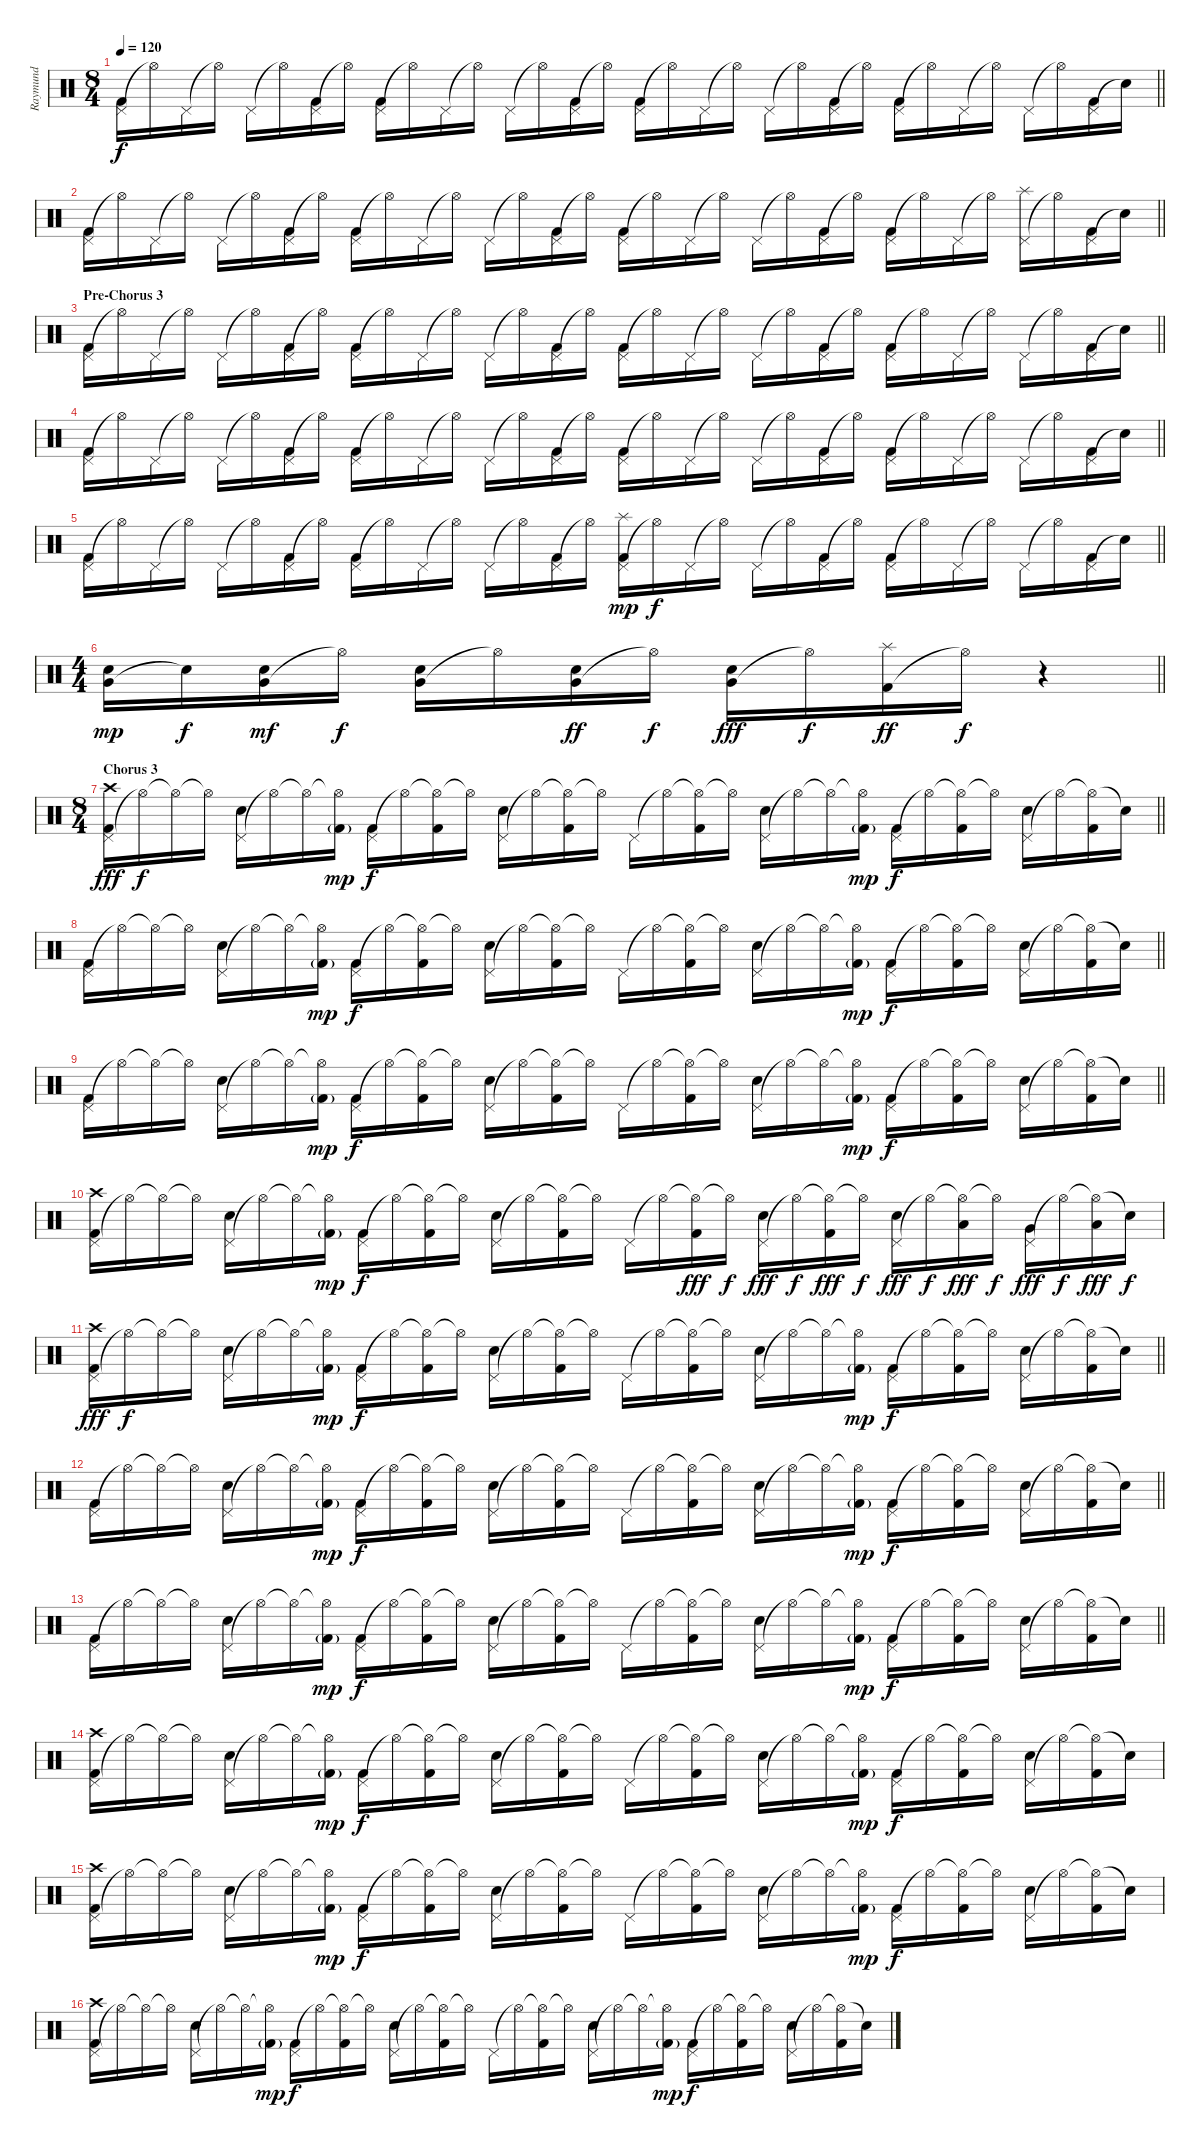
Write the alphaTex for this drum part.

\track ("Raymund" "Raymund") {instrument percussion}
\staff {score}
\articulation defaults
\ts (8 4)
\tempo 120
\clef neutral
\barLineRight lightlight
\ks c
("Pedal Hi-Hat (hit)" "Kick (hit) 2").16{dy f} "Hi-Hat (open)"{t}.16 "Pedal Hi-Hat (hit)".16 "Hi-Hat (open)"{t}.16 "Pedal Hi-Hat (hit)".16 "Hi-Hat (open)"{t}.16 ("Pedal Hi-Hat (hit)" "Kick (hit) 2").16 "Hi-Hat (open)"{t}.16 ("Pedal Hi-Hat (hit)" "Kick (hit) 2").16 "Hi-Hat (open)"{t}.16 "Pedal Hi-Hat (hit)".16 "Hi-Hat (open)"{t}.16 "Pedal Hi-Hat (hit)".16 "Hi-Hat (open)"{t}.16 ("Pedal Hi-Hat (hit)" "Kick (hit) 2").16 "Hi-Hat (open)"{t}.16 ("Pedal Hi-Hat (hit)" "Kick (hit) 2").16 "Hi-Hat (open)"{t}.16 "Pedal Hi-Hat (hit)".16 "Hi-Hat (open)"{t}.16 "Pedal Hi-Hat (hit)".16 "Hi-Hat (open)"{t}.16 ("Pedal Hi-Hat (hit)" "Kick (hit) 2").16 "Hi-Hat (open)"{t}.16 ("Pedal Hi-Hat (hit)" "Kick (hit) 2").16 "Hi-Hat (open)"{t}.16 "Pedal Hi-Hat (hit)".16 "Hi-Hat (open)"{t}.16 "Pedal Hi-Hat (hit)".16 "Hi-Hat (open)"{t}.16 ("Pedal Hi-Hat (hit)" "Kick (hit) 2").16 "Snare (hit)"{t}.16 |
\barLineRight lightlight
("Pedal Hi-Hat (hit)" "Kick (hit) 2").16 "Hi-Hat (open)"{t}.16 "Pedal Hi-Hat (hit)".16 "Hi-Hat (open)"{t}.16 "Pedal Hi-Hat (hit)".16 "Hi-Hat (open)"{t}.16 ("Pedal Hi-Hat (hit)" "Kick (hit) 2").16 "Hi-Hat (open)"{t}.16 ("Pedal Hi-Hat (hit)" "Kick (hit) 2").16 "Hi-Hat (open)"{t}.16 "Pedal Hi-Hat (hit)".16 "Hi-Hat (open)"{t}.16 "Pedal Hi-Hat (hit)".16 "Hi-Hat (open)"{t}.16 ("Pedal Hi-Hat (hit)" "Kick (hit) 2").16 "Hi-Hat (open)"{t}.16 ("Pedal Hi-Hat (hit)" "Kick (hit) 2").16 "Hi-Hat (open)"{t}.16 "Pedal Hi-Hat (hit)".16 "Hi-Hat (open)"{t}.16 "Pedal Hi-Hat (hit)".16 "Hi-Hat (open)"{t}.16 ("Pedal Hi-Hat (hit)" "Kick (hit) 2").16 "Hi-Hat (open)"{t}.16 ("Pedal Hi-Hat (hit)" "Kick (hit) 2").16 "Hi-Hat (open)"{t}.16 "Pedal Hi-Hat (hit)".16 "Hi-Hat (open)"{t}.16 ("Pedal Hi-Hat (hit)" "Splash (hit)").16 "Hi-Hat (open)"{t}.16 ("Pedal Hi-Hat (hit)" "Kick (hit) 2").16 "Snare (hit)"{t}.16 |
\section ("" "Pre-Chorus 3")
\barLineRight lightlight
("Pedal Hi-Hat (hit)" "Kick (hit) 2").16 "Hi-Hat (open)"{t}.16 "Pedal Hi-Hat (hit)".16 "Hi-Hat (open)"{t}.16 "Pedal Hi-Hat (hit)".16 "Hi-Hat (open)"{t}.16 ("Pedal Hi-Hat (hit)" "Kick (hit) 2").16 "Hi-Hat (open)"{t}.16 ("Pedal Hi-Hat (hit)" "Kick (hit) 2").16 "Hi-Hat (open)"{t}.16 "Pedal Hi-Hat (hit)".16 "Hi-Hat (open)"{t}.16 "Pedal Hi-Hat (hit)".16 "Hi-Hat (open)"{t}.16 ("Pedal Hi-Hat (hit)" "Kick (hit) 2").16 "Hi-Hat (open)"{t}.16 ("Pedal Hi-Hat (hit)" "Kick (hit) 2").16 "Hi-Hat (open)"{t}.16 "Pedal Hi-Hat (hit)".16 "Hi-Hat (open)"{t}.16 "Pedal Hi-Hat (hit)".16 "Hi-Hat (open)"{t}.16 ("Pedal Hi-Hat (hit)" "Kick (hit) 2").16 "Hi-Hat (open)"{t}.16 ("Pedal Hi-Hat (hit)" "Kick (hit) 2").16 "Hi-Hat (open)"{t}.16 "Pedal Hi-Hat (hit)".16 "Hi-Hat (open)"{t}.16 "Pedal Hi-Hat (hit)".16 "Hi-Hat (open)"{t}.16 ("Pedal Hi-Hat (hit)" "Kick (hit) 2").16 "Snare (hit)"{t}.16 |
\barLineRight lightlight
("Pedal Hi-Hat (hit)" "Kick (hit) 2").16 "Hi-Hat (open)"{t}.16 "Pedal Hi-Hat (hit)".16 "Hi-Hat (open)"{t}.16 "Pedal Hi-Hat (hit)".16 "Hi-Hat (open)"{t}.16 ("Pedal Hi-Hat (hit)" "Kick (hit) 2").16 "Hi-Hat (open)"{t}.16 ("Pedal Hi-Hat (hit)" "Kick (hit) 2").16 "Hi-Hat (open)"{t}.16 "Pedal Hi-Hat (hit)".16 "Hi-Hat (open)"{t}.16 "Pedal Hi-Hat (hit)".16 "Hi-Hat (open)"{t}.16 ("Pedal Hi-Hat (hit)" "Kick (hit) 2").16 "Hi-Hat (open)"{t}.16 ("Pedal Hi-Hat (hit)" "Kick (hit) 2").16 "Hi-Hat (open)"{t}.16 "Pedal Hi-Hat (hit)".16 "Hi-Hat (open)"{t}.16 "Pedal Hi-Hat (hit)".16 "Hi-Hat (open)"{t}.16 ("Pedal Hi-Hat (hit)" "Kick (hit) 2").16 "Hi-Hat (open)"{t}.16 ("Pedal Hi-Hat (hit)" "Kick (hit) 2").16 "Hi-Hat (open)"{t}.16 "Pedal Hi-Hat (hit)".16 "Hi-Hat (open)"{t}.16 "Pedal Hi-Hat (hit)".16 "Hi-Hat (open)"{t}.16 ("Pedal Hi-Hat (hit)" "Kick (hit) 2").16 "Snare (hit)"{t}.16 |
\barLineRight lightlight
("Pedal Hi-Hat (hit)" "Kick (hit) 2").16 "Hi-Hat (open)"{t}.16 "Pedal Hi-Hat (hit)".16 "Hi-Hat (open)"{t}.16 "Pedal Hi-Hat (hit)".16 "Hi-Hat (open)"{t}.16 ("Pedal Hi-Hat (hit)" "Kick (hit) 2").16 "Hi-Hat (open)"{t}.16 ("Pedal Hi-Hat (hit)" "Kick (hit) 2").16 "Hi-Hat (open)"{t}.16 "Pedal Hi-Hat (hit)".16 "Hi-Hat (open)"{t}.16 "Pedal Hi-Hat (hit)".16 "Hi-Hat (open)"{t}.16 ("Pedal Hi-Hat (hit)" "Kick (hit) 2").16 "Hi-Hat (open)"{t}.16 ("Pedal Hi-Hat (hit)" "Kick (hit) 2" "Splash (hit)").16{dy mp} "Hi-Hat (open)"{t}.16{dy f} "Pedal Hi-Hat (hit)".16 "Hi-Hat (open)"{t}.16 "Pedal Hi-Hat (hit)".16 "Hi-Hat (open)"{t}.16 ("Pedal Hi-Hat (hit)" "Kick (hit) 2").16 "Hi-Hat (open)"{t}.16 ("Pedal Hi-Hat (hit)" "Kick (hit) 2").16 "Hi-Hat (open)"{t}.16 "Pedal Hi-Hat (hit)".16 "Hi-Hat (open)"{t}.16 "Pedal Hi-Hat (hit)".16 "Hi-Hat (open)"{t}.16 ("Pedal Hi-Hat (hit)" "Kick (hit) 2").16 "Snare (hit)"{t}.16 |
\ts (4 4)
\barLineRight lightlight
("Very Low Tom (hit)" "Snare (hit) 2").16{dy mp} "Snare (hit)"{t}.16{dy f} ("Very Low Tom (hit)" "Snare (hit) 2").16{dy mf} "Hi-Hat (open)"{t}.16{dy f} ("Very Low Tom (hit)" "Snare (hit) 2").16 "Hi-Hat (open)"{t}.16 ("Very Low Tom (hit)" "Snare (hit) 2").16{dy ff} "Hi-Hat (open)"{t}.16{dy f} ("Very Low Tom (hit)" "Snare (hit) 2").16{dy fff} "Hi-Hat (open)"{t}.16{dy f} ("Kick (hit) 2" "Splash (hit)").16{dy ff} "Hi-Hat (open)"{t}.16{dy f} r.4 |
\ts (8 4)
\section ("" "Chorus 3")
\barLineRight lightlight
("Pedal Hi-Hat (hit)" "Kick (hit) 2" "Crash high (hit)").16{dy fff} "Hi-Hat (open)"{t}.16{dy f} "Hi-Hat (open)"{t}.16 "Hi-Hat (open)"{t}.16 ("Pedal Hi-Hat (hit)" "Snare (hit) 2").16 "Hi-Hat (open)"{t}.16 "Hi-Hat (open)"{t}.16 ("Hi-Hat (open)"{t} "Kick (hit) 2"{g}).16{dy mp} ("Pedal Hi-Hat (hit)" "Kick (hit) 2").16{dy f} "Hi-Hat (open)"{t}.16 ("Hi-Hat (open)"{t} "Kick (hit) 2").16 "Hi-Hat (open)"{t}.16 ("Pedal Hi-Hat (hit)" "Snare (hit) 2").16 "Hi-Hat (open)"{t}.16 ("Hi-Hat (open)"{t} "Kick (hit) 2").16 "Hi-Hat (open)"{t}.16 "Pedal Hi-Hat (hit)".16 "Hi-Hat (open)"{t}.16 ("Hi-Hat (open)"{t} "Kick (hit) 2").16 "Hi-Hat (open)"{t}.16 ("Pedal Hi-Hat (hit)" "Snare (hit) 2").16 "Hi-Hat (open)"{t}.16 "Hi-Hat (open)"{t}.16 ("Hi-Hat (open)"{t} "Kick (hit) 2"{g}).16{dy mp} ("Pedal Hi-Hat (hit)" "Kick (hit) 2").16{dy f} "Hi-Hat (open)"{t}.16 ("Hi-Hat (open)"{t} "Kick (hit) 2").16 "Hi-Hat (open)"{t}.16 ("Pedal Hi-Hat (hit)" "Snare (hit) 2").16 "Hi-Hat (open)"{t}.16 ("Hi-Hat (open)"{t} "Kick (hit) 2").16 "Snare (hit)"{t}.16 |
\barLineRight lightlight
("Pedal Hi-Hat (hit)" "Kick (hit) 2").16 "Hi-Hat (open)"{t}.16 "Hi-Hat (open)"{t}.16 "Hi-Hat (open)"{t}.16 ("Pedal Hi-Hat (hit)" "Snare (hit) 2").16 "Hi-Hat (open)"{t}.16 "Hi-Hat (open)"{t}.16 ("Hi-Hat (open)"{t} "Kick (hit) 2"{g}).16{dy mp} ("Pedal Hi-Hat (hit)" "Kick (hit) 2").16{dy f} "Hi-Hat (open)"{t}.16 ("Hi-Hat (open)"{t} "Kick (hit) 2").16 "Hi-Hat (open)"{t}.16 ("Pedal Hi-Hat (hit)" "Snare (hit) 2").16 "Hi-Hat (open)"{t}.16 ("Hi-Hat (open)"{t} "Kick (hit) 2").16 "Hi-Hat (open)"{t}.16 "Pedal Hi-Hat (hit)".16 "Hi-Hat (open)"{t}.16 ("Hi-Hat (open)"{t} "Kick (hit) 2").16 "Hi-Hat (open)"{t}.16 ("Pedal Hi-Hat (hit)" "Snare (hit) 2").16 "Hi-Hat (open)"{t}.16 "Hi-Hat (open)"{t}.16 ("Hi-Hat (open)"{t} "Kick (hit) 2"{g}).16{dy mp} ("Pedal Hi-Hat (hit)" "Kick (hit) 2").16{dy f} "Hi-Hat (open)"{t}.16 ("Hi-Hat (open)"{t} "Kick (hit) 2").16 "Hi-Hat (open)"{t}.16 ("Pedal Hi-Hat (hit)" "Snare (hit) 2").16 "Hi-Hat (open)"{t}.16 ("Hi-Hat (open)"{t} "Kick (hit) 2").16 "Snare (hit)"{t}.16 |
\barLineRight lightlight
("Pedal Hi-Hat (hit)" "Kick (hit) 2").16 "Hi-Hat (open)"{t}.16 "Hi-Hat (open)"{t}.16 "Hi-Hat (open)"{t}.16 ("Pedal Hi-Hat (hit)" "Snare (hit) 2").16 "Hi-Hat (open)"{t}.16 "Hi-Hat (open)"{t}.16 ("Hi-Hat (open)"{t} "Kick (hit) 2"{g}).16{dy mp} ("Pedal Hi-Hat (hit)" "Kick (hit) 2").16{dy f} "Hi-Hat (open)"{t}.16 ("Hi-Hat (open)"{t} "Kick (hit) 2").16 "Hi-Hat (open)"{t}.16 ("Pedal Hi-Hat (hit)" "Snare (hit) 2").16 "Hi-Hat (open)"{t}.16 ("Hi-Hat (open)"{t} "Kick (hit) 2").16 "Hi-Hat (open)"{t}.16 "Pedal Hi-Hat (hit)".16 "Hi-Hat (open)"{t}.16 ("Hi-Hat (open)"{t} "Kick (hit) 2").16 "Hi-Hat (open)"{t}.16 ("Pedal Hi-Hat (hit)" "Snare (hit) 2").16 "Hi-Hat (open)"{t}.16 "Hi-Hat (open)"{t}.16 ("Hi-Hat (open)"{t} "Kick (hit) 2"{g}).16{dy mp} ("Pedal Hi-Hat (hit)" "Kick (hit) 2").16{dy f} "Hi-Hat (open)"{t}.16 ("Hi-Hat (open)"{t} "Kick (hit) 2").16 "Hi-Hat (open)"{t}.16 ("Pedal Hi-Hat (hit)" "Snare (hit) 2").16 "Hi-Hat (open)"{t}.16 ("Hi-Hat (open)"{t} "Kick (hit) 2").16 "Snare (hit)"{t}.16 |
("Pedal Hi-Hat (hit)" "Kick (hit) 2" "Crash high (hit)").16 "Hi-Hat (open)"{t}.16 "Hi-Hat (open)"{t}.16 "Hi-Hat (open)"{t}.16 ("Pedal Hi-Hat (hit)" "Snare (hit) 2").16 "Hi-Hat (open)"{t}.16 "Hi-Hat (open)"{t}.16 ("Hi-Hat (open)"{t} "Kick (hit) 2"{g}).16{dy mp} ("Pedal Hi-Hat (hit)" "Kick (hit) 2").16{dy f} "Hi-Hat (open)"{t}.16 ("Hi-Hat (open)"{t} "Kick (hit) 2").16 "Hi-Hat (open)"{t}.16 ("Pedal Hi-Hat (hit)" "Snare (hit) 2").16 "Hi-Hat (open)"{t}.16 ("Hi-Hat (open)"{t} "Kick (hit) 2").16 "Hi-Hat (open)"{t}.16 "Pedal Hi-Hat (hit)".16 "Hi-Hat (open)"{t}.16 ("Hi-Hat (open)"{t} "Kick (hit) 2").16{dy fff} "Hi-Hat (open)"{t}.16{dy f} ("Pedal Hi-Hat (hit)" "Snare (hit) 2").16{dy fff} "Hi-Hat (open)"{t}.16{dy f} ("Hi-Hat (open)"{t} "Kick (hit) 2").16{dy fff} "Hi-Hat (open)"{t}.16{dy f} ("Pedal Hi-Hat (hit)" "Snare (hit) 2").16{dy fff} "Hi-Hat (open)"{t}.16{dy f} ("Hi-Hat (open)"{t} "Low Tom (hit)").16{dy fff} "Hi-Hat (open)"{t}.16{dy f} ("Pedal Hi-Hat (hit)" "Very Low Tom (hit)").16{dy fff} "Hi-Hat (open)"{t}.16{dy f} ("Hi-Hat (open)"{t} "Low Tom (hit)").16{dy fff} "Snare (hit)"{t}.16{dy f} |
\barLineRight lightlight
("Pedal Hi-Hat (hit)" "Kick (hit) 2" "Crash high (hit)").16{dy fff} "Hi-Hat (open)"{t}.16{dy f} "Hi-Hat (open)"{t}.16 "Hi-Hat (open)"{t}.16 ("Pedal Hi-Hat (hit)" "Snare (hit) 2").16 "Hi-Hat (open)"{t}.16 "Hi-Hat (open)"{t}.16 ("Hi-Hat (open)"{t} "Kick (hit) 2"{g}).16{dy mp} ("Pedal Hi-Hat (hit)" "Kick (hit) 2").16{dy f} "Hi-Hat (open)"{t}.16 ("Hi-Hat (open)"{t} "Kick (hit) 2").16 "Hi-Hat (open)"{t}.16 ("Pedal Hi-Hat (hit)" "Snare (hit) 2").16 "Hi-Hat (open)"{t}.16 ("Hi-Hat (open)"{t} "Kick (hit) 2").16 "Hi-Hat (open)"{t}.16 "Pedal Hi-Hat (hit)".16 "Hi-Hat (open)"{t}.16 ("Hi-Hat (open)"{t} "Kick (hit) 2").16 "Hi-Hat (open)"{t}.16 ("Pedal Hi-Hat (hit)" "Snare (hit) 2").16 "Hi-Hat (open)"{t}.16 "Hi-Hat (open)"{t}.16 ("Hi-Hat (open)"{t} "Kick (hit) 2"{g}).16{dy mp} ("Pedal Hi-Hat (hit)" "Kick (hit) 2").16{dy f} "Hi-Hat (open)"{t}.16 ("Hi-Hat (open)"{t} "Kick (hit) 2").16 "Hi-Hat (open)"{t}.16 ("Pedal Hi-Hat (hit)" "Snare (hit) 2").16 "Hi-Hat (open)"{t}.16 ("Hi-Hat (open)"{t} "Kick (hit) 2").16 "Snare (hit)"{t}.16 |
\barLineRight lightlight
("Pedal Hi-Hat (hit)" "Kick (hit) 2").16 "Hi-Hat (open)"{t}.16 "Hi-Hat (open)"{t}.16 "Hi-Hat (open)"{t}.16 ("Pedal Hi-Hat (hit)" "Snare (hit) 2").16 "Hi-Hat (open)"{t}.16 "Hi-Hat (open)"{t}.16 ("Hi-Hat (open)"{t} "Kick (hit) 2"{g}).16{dy mp} ("Pedal Hi-Hat (hit)" "Kick (hit) 2").16{dy f} "Hi-Hat (open)"{t}.16 ("Hi-Hat (open)"{t} "Kick (hit) 2").16 "Hi-Hat (open)"{t}.16 ("Pedal Hi-Hat (hit)" "Snare (hit) 2").16 "Hi-Hat (open)"{t}.16 ("Hi-Hat (open)"{t} "Kick (hit) 2").16 "Hi-Hat (open)"{t}.16 "Pedal Hi-Hat (hit)".16 "Hi-Hat (open)"{t}.16 ("Hi-Hat (open)"{t} "Kick (hit) 2").16 "Hi-Hat (open)"{t}.16 ("Pedal Hi-Hat (hit)" "Snare (hit) 2").16 "Hi-Hat (open)"{t}.16 "Hi-Hat (open)"{t}.16 ("Hi-Hat (open)"{t} "Kick (hit) 2"{g}).16{dy mp} ("Pedal Hi-Hat (hit)" "Kick (hit) 2").16{dy f} "Hi-Hat (open)"{t}.16 ("Hi-Hat (open)"{t} "Kick (hit) 2").16 "Hi-Hat (open)"{t}.16 ("Pedal Hi-Hat (hit)" "Snare (hit) 2").16 "Hi-Hat (open)"{t}.16 ("Hi-Hat (open)"{t} "Kick (hit) 2").16 "Snare (hit)"{t}.16 |
\barLineRight lightlight
("Pedal Hi-Hat (hit)" "Kick (hit) 2").16 "Hi-Hat (open)"{t}.16 "Hi-Hat (open)"{t}.16 "Hi-Hat (open)"{t}.16 ("Pedal Hi-Hat (hit)" "Snare (hit) 2").16 "Hi-Hat (open)"{t}.16 "Hi-Hat (open)"{t}.16 ("Hi-Hat (open)"{t} "Kick (hit) 2"{g}).16{dy mp} ("Pedal Hi-Hat (hit)" "Kick (hit) 2").16{dy f} "Hi-Hat (open)"{t}.16 ("Hi-Hat (open)"{t} "Kick (hit) 2").16 "Hi-Hat (open)"{t}.16 ("Pedal Hi-Hat (hit)" "Snare (hit) 2").16 "Hi-Hat (open)"{t}.16 ("Hi-Hat (open)"{t} "Kick (hit) 2").16 "Hi-Hat (open)"{t}.16 "Pedal Hi-Hat (hit)".16 "Hi-Hat (open)"{t}.16 ("Hi-Hat (open)"{t} "Kick (hit) 2").16 "Hi-Hat (open)"{t}.16 ("Pedal Hi-Hat (hit)" "Snare (hit) 2").16 "Hi-Hat (open)"{t}.16 "Hi-Hat (open)"{t}.16 ("Hi-Hat (open)"{t} "Kick (hit) 2"{g}).16{dy mp} ("Pedal Hi-Hat (hit)" "Kick (hit) 2").16{dy f} "Hi-Hat (open)"{t}.16 ("Hi-Hat (open)"{t} "Kick (hit) 2").16 "Hi-Hat (open)"{t}.16 ("Pedal Hi-Hat (hit)" "Snare (hit) 2").16 "Hi-Hat (open)"{t}.16 ("Hi-Hat (open)"{t} "Kick (hit) 2").16 "Snare (hit)"{t}.16 |
("Pedal Hi-Hat (hit)" "Kick (hit) 2" "Crash high (hit)").16 "Hi-Hat (open)"{t}.16 "Hi-Hat (open)"{t}.16 "Hi-Hat (open)"{t}.16 ("Pedal Hi-Hat (hit)" "Snare (hit) 2").16 "Hi-Hat (open)"{t}.16 "Hi-Hat (open)"{t}.16 ("Hi-Hat (open)"{t} "Kick (hit) 2"{g}).16{dy mp} ("Pedal Hi-Hat (hit)" "Kick (hit) 2").16{dy f} "Hi-Hat (open)"{t}.16 ("Hi-Hat (open)"{t} "Kick (hit) 2").16 "Hi-Hat (open)"{t}.16 ("Pedal Hi-Hat (hit)" "Snare (hit) 2").16 "Hi-Hat (open)"{t}.16 ("Hi-Hat (open)"{t} "Kick (hit) 2").16 "Hi-Hat (open)"{t}.16 "Pedal Hi-Hat (hit)".16 "Hi-Hat (open)"{t}.16 ("Hi-Hat (open)"{t} "Kick (hit) 2").16 "Hi-Hat (open)"{t}.16 ("Pedal Hi-Hat (hit)" "Snare (hit) 2").16 "Hi-Hat (open)"{t}.16 "Hi-Hat (open)"{t}.16 ("Hi-Hat (open)"{t} "Kick (hit) 2"{g}).16{dy mp} ("Pedal Hi-Hat (hit)" "Kick (hit) 2").16{dy f} "Hi-Hat (open)"{t}.16 ("Hi-Hat (open)"{t} "Kick (hit) 2").16 "Hi-Hat (open)"{t}.16 ("Pedal Hi-Hat (hit)" "Snare (hit) 2").16 "Hi-Hat (open)"{t}.16 ("Hi-Hat (open)"{t} "Kick (hit) 2").16 "Snare (hit)"{t}.16 |
("Pedal Hi-Hat (hit)" "Kick (hit) 2" "Crash high (hit)").16 "Hi-Hat (open)"{t}.16 "Hi-Hat (open)"{t}.16 "Hi-Hat (open)"{t}.16 ("Pedal Hi-Hat (hit)" "Snare (hit) 2").16 "Hi-Hat (open)"{t}.16 "Hi-Hat (open)"{t}.16 ("Hi-Hat (open)"{t} "Kick (hit) 2"{g}).16{dy mp} ("Pedal Hi-Hat (hit)" "Kick (hit) 2").16{dy f} "Hi-Hat (open)"{t}.16 ("Hi-Hat (open)"{t} "Kick (hit) 2").16 "Hi-Hat (open)"{t}.16 ("Pedal Hi-Hat (hit)" "Snare (hit) 2").16 "Hi-Hat (open)"{t}.16 ("Hi-Hat (open)"{t} "Kick (hit) 2").16 "Hi-Hat (open)"{t}.16 "Pedal Hi-Hat (hit)".16 "Hi-Hat (open)"{t}.16 ("Hi-Hat (open)"{t} "Kick (hit) 2").16 "Hi-Hat (open)"{t}.16 ("Pedal Hi-Hat (hit)" "Snare (hit) 2").16 "Hi-Hat (open)"{t}.16 "Hi-Hat (open)"{t}.16 ("Hi-Hat (open)"{t} "Kick (hit) 2"{g}).16{dy mp} ("Pedal Hi-Hat (hit)" "Kick (hit) 2").16{dy f} "Hi-Hat (open)"{t}.16 ("Hi-Hat (open)"{t} "Kick (hit) 2").16 "Hi-Hat (open)"{t}.16 ("Pedal Hi-Hat (hit)" "Snare (hit) 2").16 "Hi-Hat (open)"{t}.16 ("Hi-Hat (open)"{t} "Kick (hit) 2").16 "Snare (hit)"{t}.16 |
("Pedal Hi-Hat (hit)" "Kick (hit) 2" "Crash high (hit)").16 "Hi-Hat (open)"{t}.16 "Hi-Hat (open)"{t}.16 "Hi-Hat (open)"{t}.16 ("Pedal Hi-Hat (hit)" "Snare (hit) 2").16 "Hi-Hat (open)"{t}.16 "Hi-Hat (open)"{t}.16 ("Hi-Hat (open)"{t} "Kick (hit) 2"{g}).16{dy mp} ("Pedal Hi-Hat (hit)" "Kick (hit) 2").16{dy f} "Hi-Hat (open)"{t}.16 ("Hi-Hat (open)"{t} "Kick (hit) 2").16 "Hi-Hat (open)"{t}.16 ("Pedal Hi-Hat (hit)" "Snare (hit) 2").16 "Hi-Hat (open)"{t}.16 ("Hi-Hat (open)"{t} "Kick (hit) 2").16 "Hi-Hat (open)"{t}.16 "Pedal Hi-Hat (hit)".16 "Hi-Hat (open)"{t}.16 ("Hi-Hat (open)"{t} "Kick (hit) 2").16 "Hi-Hat (open)"{t}.16 ("Pedal Hi-Hat (hit)" "Snare (hit) 2").16 "Hi-Hat (open)"{t}.16 "Hi-Hat (open)"{t}.16 ("Hi-Hat (open)"{t} "Kick (hit) 2"{g}).16{dy mp} ("Pedal Hi-Hat (hit)" "Kick (hit) 2").16{dy f} "Hi-Hat (open)"{t}.16 ("Hi-Hat (open)"{t} "Kick (hit) 2").16 "Hi-Hat (open)"{t}.16 ("Pedal Hi-Hat (hit)" "Snare (hit) 2").16 "Hi-Hat (open)"{t}.16 ("Hi-Hat (open)"{t} "Kick (hit) 2").16 "Snare (hit)"{t}.16
